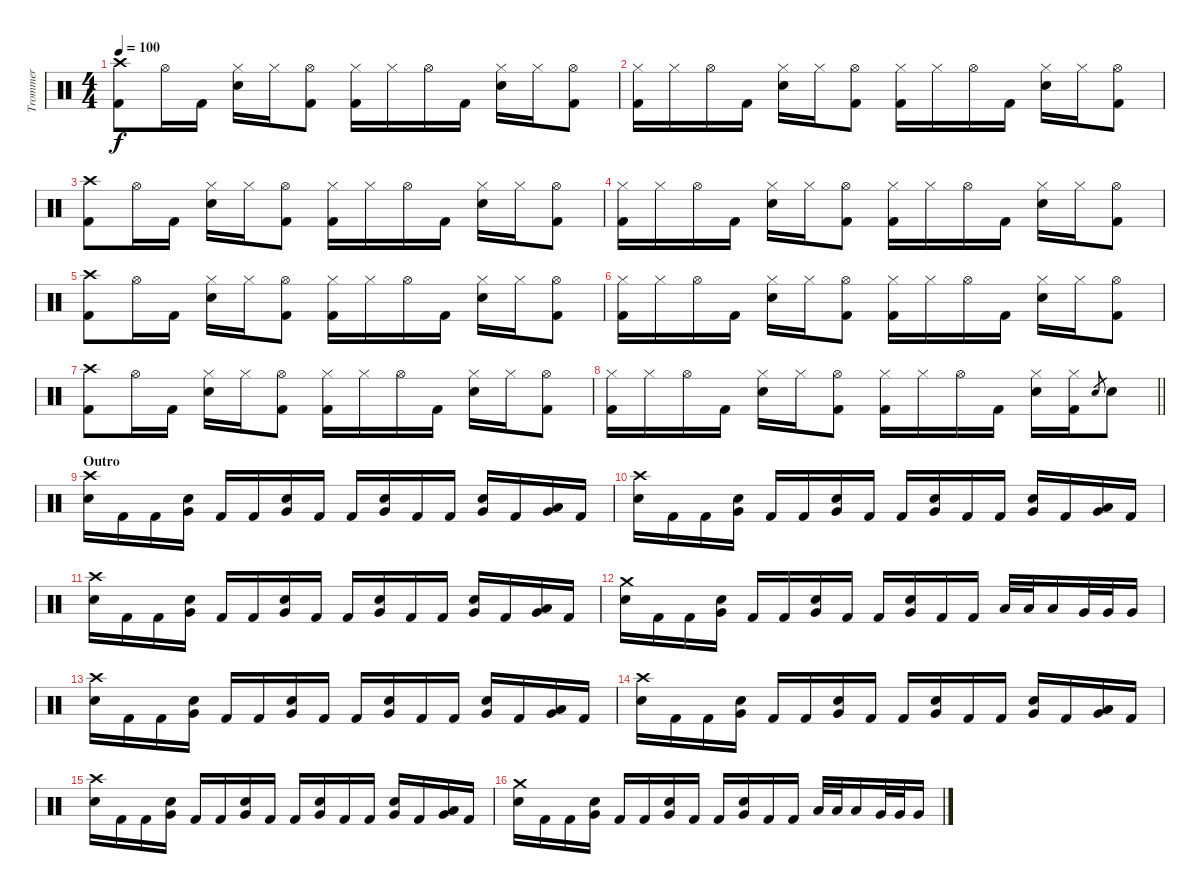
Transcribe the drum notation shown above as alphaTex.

\track ("Trommer" "Trommer") {instrument percussion}
\staff {score}
\articulation defaults
\ts (4 4)
\tempo 100
\clef neutral
\ks c
("Crash high (hit)" "Kick (hit) 2").8{dy f} "Hi-Hat (open)".16 "Kick (hit) 2".16 ("Hi-Hat (closed)" "Snare (hit) 2").16 "Hi-Hat (closed)".16 ("Hi-Hat (open)" "Kick (hit) 2").8 ("Hi-Hat (closed)" "Kick (hit) 2").16 "Hi-Hat (closed)".16 "Hi-Hat (open)".16 "Kick (hit) 2".16 ("Hi-Hat (closed)" "Snare (hit) 2").16 "Hi-Hat (closed)".16 ("Hi-Hat (open)" "Kick (hit) 2").8 |
("Hi-Hat (closed)" "Kick (hit) 2").16 "Hi-Hat (closed)".16 "Hi-Hat (open)".16 "Kick (hit) 2".16 ("Hi-Hat (closed)" "Snare (hit) 2").16 "Hi-Hat (closed)".16 ("Hi-Hat (open)" "Kick (hit) 2").8 ("Hi-Hat (closed)" "Kick (hit) 2").16 "Hi-Hat (closed)".16 "Hi-Hat (open)".16 "Kick (hit) 2".16 ("Hi-Hat (closed)" "Snare (hit) 2").16 "Hi-Hat (closed)".16 ("Hi-Hat (open)" "Kick (hit) 2").8 |
("Crash high (hit)" "Kick (hit) 2").8 "Hi-Hat (open)".16 "Kick (hit) 2".16 ("Hi-Hat (closed)" "Snare (hit) 2").16 "Hi-Hat (closed)".16 ("Hi-Hat (open)" "Kick (hit) 2").8 ("Hi-Hat (closed)" "Kick (hit) 2").16 "Hi-Hat (closed)".16 "Hi-Hat (open)".16 "Kick (hit) 2".16 ("Hi-Hat (closed)" "Snare (hit) 2").16 "Hi-Hat (closed)".16 ("Hi-Hat (open)" "Kick (hit) 2").8 |
("Hi-Hat (closed)" "Kick (hit) 2").16 "Hi-Hat (closed)".16 "Hi-Hat (open)".16 "Kick (hit) 2".16 ("Hi-Hat (closed)" "Snare (hit) 2").16 "Hi-Hat (closed)".16 ("Hi-Hat (open)" "Kick (hit) 2").8 ("Hi-Hat (closed)" "Kick (hit) 2").16 "Hi-Hat (closed)".16 "Hi-Hat (open)".16 "Kick (hit) 2".16 ("Hi-Hat (closed)" "Snare (hit) 2").16 "Hi-Hat (closed)".16 ("Hi-Hat (open)" "Kick (hit) 2").8 |
("Crash high (hit)" "Kick (hit) 2").8 "Hi-Hat (open)".16 "Kick (hit) 2".16 ("Hi-Hat (closed)" "Snare (hit) 2").16 "Hi-Hat (closed)".16 ("Hi-Hat (open)" "Kick (hit) 2").8 ("Hi-Hat (closed)" "Kick (hit) 2").16 "Hi-Hat (closed)".16 "Hi-Hat (open)".16 "Kick (hit) 2".16 ("Hi-Hat (closed)" "Snare (hit) 2").16 "Hi-Hat (closed)".16 ("Hi-Hat (open)" "Kick (hit) 2").8 |
("Hi-Hat (closed)" "Kick (hit) 2").16 "Hi-Hat (closed)".16 "Hi-Hat (open)".16 "Kick (hit) 2".16 ("Hi-Hat (closed)" "Snare (hit) 2").16 "Hi-Hat (closed)".16 ("Hi-Hat (open)" "Kick (hit) 2").8 ("Hi-Hat (closed)" "Kick (hit) 2").16 "Hi-Hat (closed)".16 "Hi-Hat (open)".16 "Kick (hit) 2".16 ("Hi-Hat (closed)" "Snare (hit) 2").16 "Hi-Hat (closed)".16 ("Hi-Hat (open)" "Kick (hit) 2").8 |
("Crash high (hit)" "Kick (hit) 2").8 "Hi-Hat (open)".16 "Kick (hit) 2".16 ("Hi-Hat (closed)" "Snare (hit) 2").16 "Hi-Hat (closed)".16 ("Hi-Hat (open)" "Kick (hit) 2").8 ("Hi-Hat (closed)" "Kick (hit) 2").16 "Hi-Hat (closed)".16 "Hi-Hat (open)".16 "Kick (hit) 2".16 ("Hi-Hat (closed)" "Snare (hit) 2").16 "Hi-Hat (closed)".16 ("Hi-Hat (open)" "Kick (hit) 2").8 |
\barLineRight lightlight
("Hi-Hat (closed)" "Kick (hit) 2").16 "Hi-Hat (closed)".16 "Hi-Hat (open)".16 "Kick (hit) 2".16 ("Hi-Hat (closed)" "Snare (hit) 2").16 "Hi-Hat (closed)".16 ("Hi-Hat (open)" "Kick (hit) 2").8 ("Hi-Hat (closed)" "Kick (hit) 2").16 "Hi-Hat (closed)".16 "Hi-Hat (open)".16 "Kick (hit) 2".16 ("Hi-Hat (closed)" "Snare (hit) 2").16 ("Hi-Hat (closed)" "Kick (hit) 2").16 "Snare (hit) 2".8{gr} "Snare (hit) 2".8 |
\section ("" "Outro")
("Crash high (hit)" "Snare (hit) 2").16 "Kick (hit) 2".16 "Kick (hit) 2".16 ("Very Low Tom (hit)" "Snare (hit) 2").16 "Kick (hit) 2".16 "Kick (hit) 2".16 ("Very Low Tom (hit)" "Snare (hit) 2").16 "Kick (hit) 2".16 "Kick (hit) 2".16 ("Very Low Tom (hit)" "Snare (hit) 2").16 "Kick (hit) 2".16 "Kick (hit) 2".16 ("Very Low Tom (hit)" "Snare (hit) 2").16 "Kick (hit) 2".16 ("Low Tom (hit)" "Very Low Tom (hit)").16 "Kick (hit) 2".16 |
("Crash high (hit)" "Snare (hit) 2").16 "Kick (hit) 2".16 "Kick (hit) 2".16 ("Very Low Tom (hit)" "Snare (hit) 2").16 "Kick (hit) 2".16 "Kick (hit) 2".16 ("Very Low Tom (hit)" "Snare (hit) 2").16 "Kick (hit) 2".16 "Kick (hit) 2".16 ("Very Low Tom (hit)" "Snare (hit) 2").16 "Kick (hit) 2".16 "Kick (hit) 2".16 ("Very Low Tom (hit)" "Snare (hit) 2").16 "Kick (hit) 2".16 ("Low Tom (hit)" "Very Low Tom (hit)").16 "Kick (hit) 2".16 |
("Crash high (hit)" "Snare (hit) 2").16 "Kick (hit) 2".16 "Kick (hit) 2".16 ("Very Low Tom (hit)" "Snare (hit) 2").16 "Kick (hit) 2".16 "Kick (hit) 2".16 ("Very Low Tom (hit)" "Snare (hit) 2").16 "Kick (hit) 2".16 "Kick (hit) 2".16 ("Very Low Tom (hit)" "Snare (hit) 2").16 "Kick (hit) 2".16 "Kick (hit) 2".16 ("Very Low Tom (hit)" "Snare (hit) 2").16 "Kick (hit) 2".16 ("Low Tom (hit)" "Very Low Tom (hit)").16 "Kick (hit) 2".16 |
("Crash medium (hit)" "Snare (hit) 2").16 "Kick (hit) 2".16 "Kick (hit) 2".16 ("Very Low Tom (hit)" "Snare (hit) 2").16 "Kick (hit) 2".16 "Kick (hit) 2".16 ("Very Low Tom (hit)" "Snare (hit) 2").16 "Kick (hit) 2".16 "Kick (hit) 2".16 ("Very Low Tom (hit)" "Snare (hit) 2").16 "Kick (hit) 2".16 "Kick (hit) 2".16 "Low Tom (hit)".32 "Low Tom (hit)".32 "Low Tom (hit)".16 "Very Low Tom (hit)".32 "Very Low Tom (hit)".32 "Very Low Tom (hit)".16 |
("Crash high (hit)" "Snare (hit) 2").16 "Kick (hit) 2".16 "Kick (hit) 2".16 ("Very Low Tom (hit)" "Snare (hit) 2").16 "Kick (hit) 2".16 "Kick (hit) 2".16 ("Very Low Tom (hit)" "Snare (hit) 2").16 "Kick (hit) 2".16 "Kick (hit) 2".16 ("Very Low Tom (hit)" "Snare (hit) 2").16 "Kick (hit) 2".16 "Kick (hit) 2".16 ("Very Low Tom (hit)" "Snare (hit) 2").16 "Kick (hit) 2".16 ("Low Tom (hit)" "Very Low Tom (hit)").16 "Kick (hit) 2".16 |
("Crash high (hit)" "Snare (hit) 2").16 "Kick (hit) 2".16 "Kick (hit) 2".16 ("Very Low Tom (hit)" "Snare (hit) 2").16 "Kick (hit) 2".16 "Kick (hit) 2".16 ("Very Low Tom (hit)" "Snare (hit) 2").16 "Kick (hit) 2".16 "Kick (hit) 2".16 ("Very Low Tom (hit)" "Snare (hit) 2").16 "Kick (hit) 2".16 "Kick (hit) 2".16 ("Very Low Tom (hit)" "Snare (hit) 2").16 "Kick (hit) 2".16 ("Low Tom (hit)" "Very Low Tom (hit)").16 "Kick (hit) 2".16 |
("Crash high (hit)" "Snare (hit) 2").16 "Kick (hit) 2".16 "Kick (hit) 2".16 ("Very Low Tom (hit)" "Snare (hit) 2").16 "Kick (hit) 2".16 "Kick (hit) 2".16 ("Very Low Tom (hit)" "Snare (hit) 2").16 "Kick (hit) 2".16 "Kick (hit) 2".16 ("Very Low Tom (hit)" "Snare (hit) 2").16 "Kick (hit) 2".16 "Kick (hit) 2".16 ("Very Low Tom (hit)" "Snare (hit) 2").16 "Kick (hit) 2".16 ("Low Tom (hit)" "Very Low Tom (hit)").16 "Kick (hit) 2".16 |
("Crash medium (hit)" "Snare (hit) 2").16 "Kick (hit) 2".16 "Kick (hit) 2".16 ("Very Low Tom (hit)" "Snare (hit) 2").16 "Kick (hit) 2".16 "Kick (hit) 2".16 ("Very Low Tom (hit)" "Snare (hit) 2").16 "Kick (hit) 2".16 "Kick (hit) 2".16 ("Very Low Tom (hit)" "Snare (hit) 2").16 "Kick (hit) 2".16 "Kick (hit) 2".16 "Low Tom (hit)".32 "Low Tom (hit)".32 "Low Tom (hit)".16 "Very Low Tom (hit)".32 "Very Low Tom (hit)".32 "Very Low Tom (hit)".16
